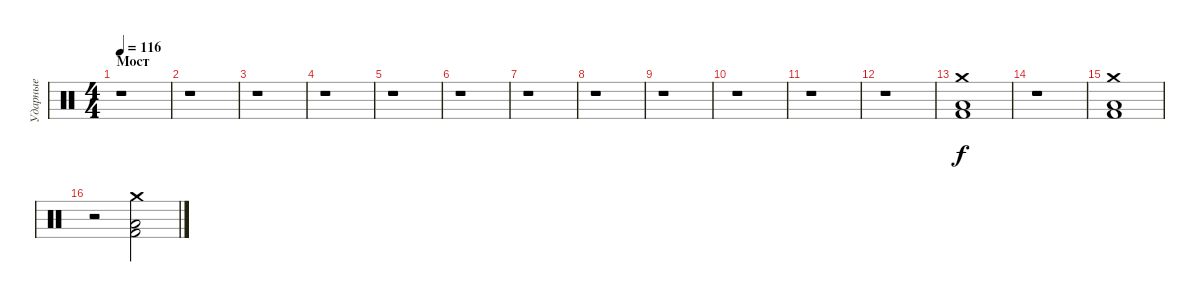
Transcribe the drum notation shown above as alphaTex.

\track ("Ударные" "Ударные") {instrument percussion}
\staff {score}
\articulation defaults
\ts (4 4)
\section ("" "Мост")
\tempo 116
\clef neutral
\ks c
r.1{dy fff} |
r.1 |
r.1 |
r.1 |
r.1 |
r.1 |
r.1 |
r.1 |
r.1 |
r.1 |
r.1 |
r.1 |
("Crash medium (hit)" "Kick (hit) 2" "Low Tom (hit)").1{dy f volume 14} |
r.1 |
("Crash medium (hit)" "Kick (hit) 2" "Low Tom (hit)").1 |
r.2 ("Crash medium (hit)" "Kick (hit) 2" "Low Tom (hit)").2
